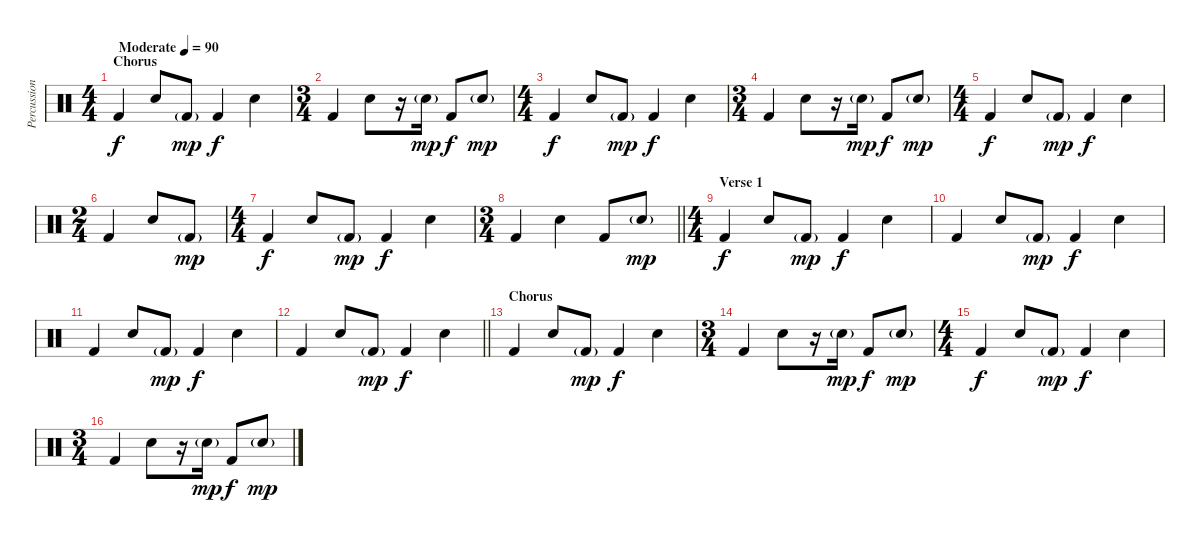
\track ("Percussion" "Percussion") {instrument percussion}
\staff {score}
\articulation defaults
\ts (4 4)
\section ("" "Chorus")
\tempo (90 "Moderate")
\clef neutral
\ks c "Kick (hit) 2".4{dy f} "Snare (hit) 2".8 "Kick (hit) 2"{g}.8{dy mp} "Kick (hit) 2".4{dy f} "Snare (hit) 2".4
|
\ts (3 4)
"Kick (hit) 2".4 "Snare (hit) 2".8 r.16 "Snare (hit) 2"{g}.16{dy mp} "Kick (hit) 2".8{dy f} "Snare (hit) 2"{g}.8{dy mp} |
\ts (4 4)
"Kick (hit) 2".4{dy f} "Snare (hit) 2".8 "Kick (hit) 2"{g}.8{dy mp} "Kick (hit) 2".4{dy f} "Snare (hit) 2".4 |
\ts (3 4)
"Kick (hit) 2".4 "Snare (hit) 2".8 r.16 "Snare (hit) 2"{g}.16{dy mp} "Kick (hit) 2".8{dy f} "Snare (hit) 2"{g}.8{dy mp} |
\ts (4 4)
"Kick (hit) 2".4{dy f} "Snare (hit) 2".8 "Kick (hit) 2"{g}.8{dy mp} "Kick (hit) 2".4{dy f} "Snare (hit) 2".4 |
\ts (2 4)
"Kick (hit) 2".4 "Snare (hit) 2".8 "Kick (hit) 2"{g}.8{dy mp} |
\ts (4 4)
"Kick (hit) 2".4{dy f} "Snare (hit) 2".8 "Kick (hit) 2"{g}.8{dy mp} "Kick (hit) 2".4{dy f} "Snare (hit) 2".4 |
\ts (3 4)
\barLineRight lightlight "Kick (hit) 2".4 "Snare (hit) 2".4 "Kick (hit) 2".8 "Snare (hit) 2"{g}.8{dy mp}
|
\ts (4 4)
\section ("" "Verse 1")
"Kick (hit) 2".4{dy f} "Snare (hit) 2".8 "Kick (hit) 2"{g}.8{dy mp} "Kick (hit) 2".4{dy f} "Snare (hit) 2".4 |
"Kick (hit) 2".4 "Snare (hit) 2".8 "Kick (hit) 2"{g}.8{dy mp} "Kick (hit) 2".4{dy f} "Snare (hit) 2".4 |
"Kick (hit) 2".4 "Snare (hit) 2".8 "Kick (hit) 2"{g}.8{dy mp} "Kick (hit) 2".4{dy f} "Snare (hit) 2".4 |
\barLineRight lightlight "Kick (hit) 2".4 "Snare (hit) 2".8 "Kick (hit) 2"{g}.8{dy mp} "Kick (hit) 2".4{dy f} "Snare (hit) 2".4
|
\section ("" "Chorus")
"Kick (hit) 2".4 "Snare (hit) 2".8 "Kick (hit) 2"{g}.8{dy mp} "Kick (hit) 2".4{dy f} "Snare (hit) 2".4 |
\ts (3 4)
"Kick (hit) 2".4 "Snare (hit) 2".8 r.16 "Snare (hit) 2"{g}.16{dy mp} "Kick (hit) 2".8{dy f} "Snare (hit) 2"{g}.8{dy mp} |
\ts (4 4)
"Kick (hit) 2".4{dy f} "Snare (hit) 2".8 "Kick (hit) 2"{g}.8{dy mp} "Kick (hit) 2".4{dy f} "Snare (hit) 2".4 |
\ts (3 4)
"Kick (hit) 2".4 "Snare (hit) 2".8 r.16 "Snare (hit) 2"{g}.16{dy mp} "Kick (hit) 2".8{dy f} "Snare (hit) 2"{g}.8{dy mp}
